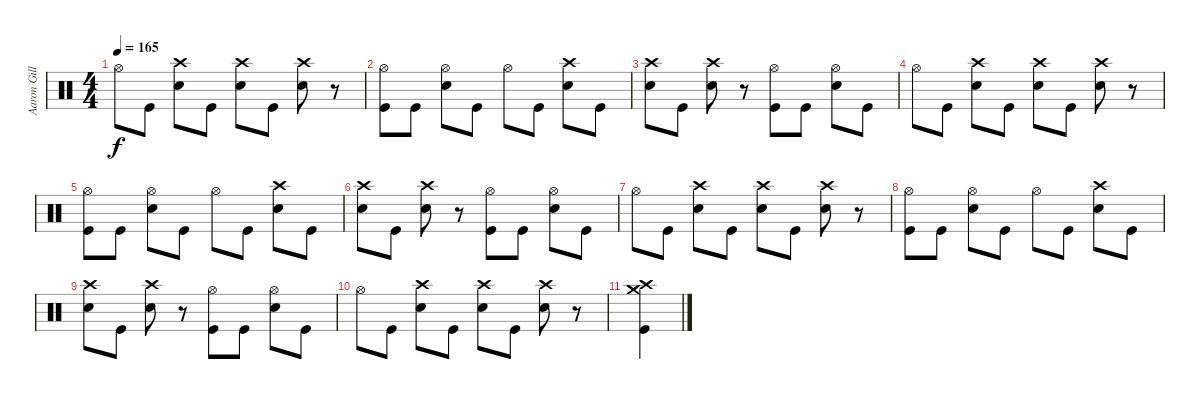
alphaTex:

\track ("Aaron Gillepsie (Drums)" "Aaron Gill") {instrument percussion}
\staff {score}
\articulation defaults
\ts (4 4)
\tempo 165
\clef neutral
\ks c "Hi-Hat (open)".8{dy f} "Kick (hit)".8
("Crash high (hit)" "Electric Snare (hit)").8 "Kick (hit)".8 ("Crash high (hit)" "Electric Snare (hit)").8 "Kick (hit)".8 ("Crash high (hit)" "Electric Snare (hit)").8 r.8 |
("Hi-Hat (open)" "Kick (hit)").8 "Kick (hit)".8 ("Hi-Hat (open)" "Electric Snare (hit)").8 "Kick (hit)".8 "Hi-Hat (open)".8 "Kick (hit)".8 ("Crash high (hit)" "Electric Snare (hit)").8 "Kick (hit)".8 |
("Crash high (hit)" "Electric Snare (hit)").8 "Kick (hit)".8 ("Crash high (hit)" "Electric Snare (hit)").8 r.8 ("Hi-Hat (open)" "Kick (hit)").8 "Kick (hit)".8 ("Hi-Hat (open)" "Electric Snare (hit)").8 "Kick (hit)".8 |
"Hi-Hat (open)".8 "Kick (hit)".8 ("Crash high (hit)" "Electric Snare (hit)").8 "Kick (hit)".8 ("Crash high (hit)" "Electric Snare (hit)").8 "Kick (hit)".8 ("Crash high (hit)" "Electric Snare (hit)").8 r.8 |
("Hi-Hat (open)" "Kick (hit)").8 "Kick (hit)".8 ("Hi-Hat (open)" "Electric Snare (hit)").8 "Kick (hit)".8 "Hi-Hat (open)".8 "Kick (hit)".8 ("Crash high (hit)" "Electric Snare (hit)").8 "Kick (hit)".8 |
("Crash high (hit)" "Electric Snare (hit)").8 "Kick (hit)".8 ("Crash high (hit)" "Electric Snare (hit)").8 r.8 ("Hi-Hat (open)" "Kick (hit)").8 "Kick (hit)".8 ("Hi-Hat (open)" "Electric Snare (hit)").8 "Kick (hit)".8 |
"Hi-Hat (open)".8 "Kick (hit)".8 ("Crash high (hit)" "Electric Snare (hit)").8 "Kick (hit)".8 ("Crash high (hit)" "Electric Snare (hit)").8 "Kick (hit)".8 ("Crash high (hit)" "Electric Snare (hit)").8 r.8 |
("Hi-Hat (open)" "Kick (hit)").8 "Kick (hit)".8 ("Hi-Hat (open)" "Electric Snare (hit)").8 "Kick (hit)".8 "Hi-Hat (open)".8 "Kick (hit)".8 ("Crash high (hit)" "Electric Snare (hit)").8 "Kick (hit)".8 |
("Crash high (hit)" "Electric Snare (hit)").8 "Kick (hit)".8 ("Crash high (hit)" "Electric Snare (hit)").8 r.8 ("Hi-Hat (open)" "Kick (hit)").8 "Kick (hit)".8 ("Hi-Hat (open)" "Electric Snare (hit)").8 "Kick (hit)".8 |
"Hi-Hat (open)".8 "Kick (hit)".8 ("Crash high (hit)" "Electric Snare (hit)").8 "Kick (hit)".8 ("Crash high (hit)" "Electric Snare (hit)").8 "Kick (hit)".8 ("Crash high (hit)" "Electric Snare (hit)").8 r.8 |
("Crash medium (hit)" "Crash high (hit)" "Kick (hit)").4
